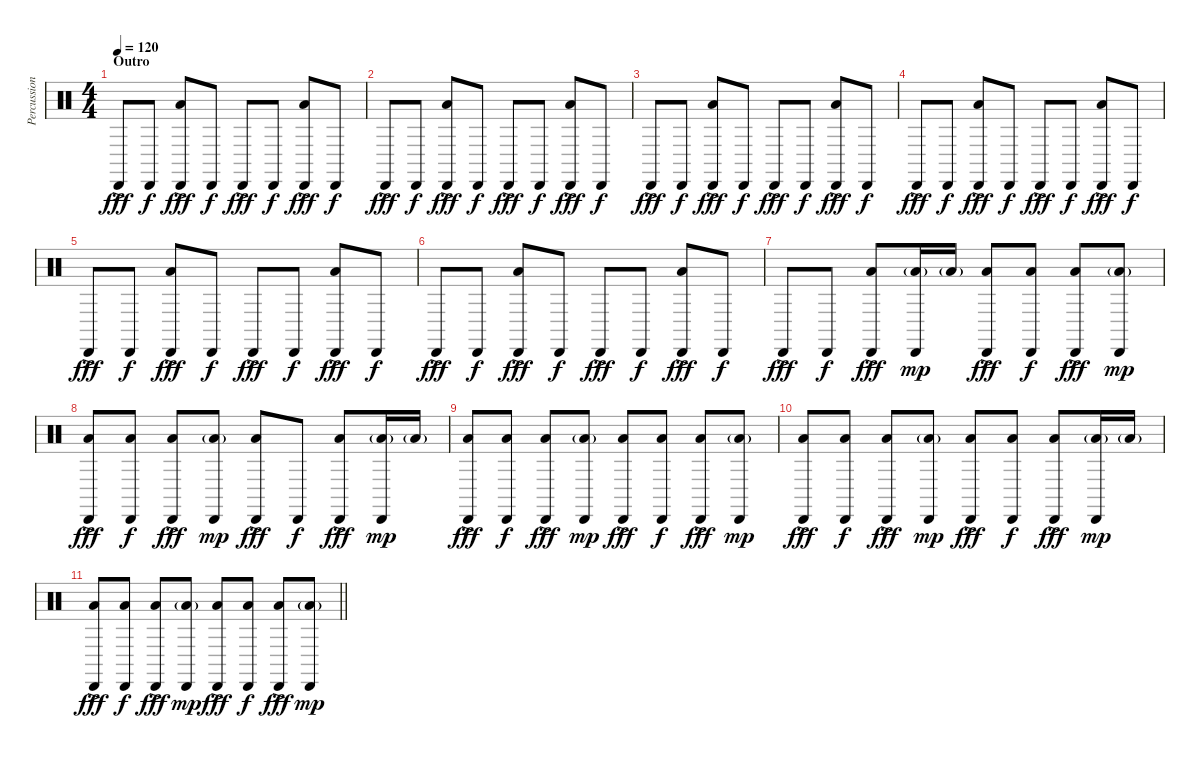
\track ("Percussion" "Percussion") {instrument percussion}
\staff {score}
\articulation defaults
\ts (4 4)
\section ("" "Outro")
\tempo 120
\clef neutral
\ks c "Cabasa (hit)"{ac}.8{dy fff} "Cabasa (hit)".8{dy f}
("Cabasa (hit)"{ac} "Low Tom (hit)").8{dy fff} "Cabasa (hit)".8{dy f} "Cabasa (hit)"{ac}.8{dy fff} "Cabasa (hit)".8{dy f} ("Cabasa (hit)"{ac} "Low Tom (hit)").8{dy fff} "Cabasa (hit)".8{dy f} |
"Cabasa (hit)"{ac}.8{dy fff} "Cabasa (hit)".8{dy f} ("Cabasa (hit)"{ac} "Low Tom (hit)").8{dy fff} "Cabasa (hit)".8{dy f} "Cabasa (hit)"{ac}.8{dy fff} "Cabasa (hit)".8{dy f} ("Cabasa (hit)"{ac} "Low Tom (hit)").8{dy fff} "Cabasa (hit)".8{dy f} |
"Cabasa (hit)"{ac}.8{dy fff} "Cabasa (hit)".8{dy f} ("Cabasa (hit)"{ac} "Low Tom (hit)").8{dy fff} "Cabasa (hit)".8{dy f} "Cabasa (hit)"{ac}.8{dy fff} "Cabasa (hit)".8{dy f} ("Cabasa (hit)"{ac} "Low Tom (hit)").8{dy fff} "Cabasa (hit)".8{dy f} |
"Cabasa (hit)"{ac}.8{dy fff} "Cabasa (hit)".8{dy f} ("Cabasa (hit)"{ac} "Low Tom (hit)").8{dy fff} "Cabasa (hit)".8{dy f} "Cabasa (hit)"{ac}.8{dy fff} "Cabasa (hit)".8{dy f} ("Cabasa (hit)"{ac} "Low Tom (hit)").8{dy fff} "Cabasa (hit)".8{dy f} |
"Cabasa (hit)"{ac}.8{dy fff} "Cabasa (hit)".8{dy f} ("Cabasa (hit)"{ac} "Low Tom (hit)").8{dy fff} "Cabasa (hit)".8{dy f} "Cabasa (hit)"{ac}.8{dy fff} "Cabasa (hit)".8{dy f} ("Cabasa (hit)"{ac} "Low Tom (hit)").8{dy fff} "Cabasa (hit)".8{dy f} |
"Cabasa (hit)"{ac}.8{dy fff} "Cabasa (hit)".8{dy f} ("Cabasa (hit)"{ac} "Low Tom (hit)").8{dy fff} "Cabasa (hit)".8{dy f} "Cabasa (hit)"{ac}.8{dy fff} "Cabasa (hit)".8{dy f} ("Cabasa (hit)"{ac} "Low Tom (hit)").8{dy fff} "Cabasa (hit)".8{dy f} |
"Cabasa (hit)"{ac}.8{dy fff} "Cabasa (hit)".8{dy f} ("Cabasa (hit)"{ac} "Low Tom (hit)").8{dy fff} ("Cabasa (hit)" "Low Tom (hit)"{g}).16{dy mp} "Low Tom (hit)"{g}.16 ("Cabasa (hit)"{ac} "Low Tom (hit)").8{dy fff} ("Cabasa (hit)" "Low Tom (hit)").8{dy f} ("Cabasa (hit)"{ac} "Low Tom (hit)").8{dy fff} ("Cabasa (hit)" "Low Tom (hit)"{g}).8{dy mp} |
("Cabasa (hit)"{ac} "Low Tom (hit)").8{dy fff} ("Cabasa (hit)" "Low Tom (hit)").8{dy f} ("Cabasa (hit)"{ac} "Low Tom (hit)").8{dy fff} ("Cabasa (hit)" "Low Tom (hit)"{g}).8{dy mp} ("Cabasa (hit)"{ac} "Low Tom (hit)").8{dy fff} "Cabasa (hit)".8{dy f} ("Cabasa (hit)"{ac} "Low Tom (hit)").8{dy fff} ("Cabasa (hit)" "Low Tom (hit)"{g}).16{dy mp} "Low Tom (hit)"{g}.16 |
("Cabasa (hit)"{ac} "Low Tom (hit)").8{dy fff} ("Cabasa (hit)" "Low Tom (hit)").8{dy f} ("Cabasa (hit)"{ac} "Low Tom (hit)").8{dy fff} ("Cabasa (hit)" "Low Tom (hit)"{g}).8{dy mp} ("Cabasa (hit)"{ac} "Low Tom (hit)").8{dy fff} ("Cabasa (hit)" "Low Tom (hit)").8{dy f} ("Cabasa (hit)"{ac} "Low Tom (hit)").8{dy fff} ("Cabasa (hit)" "Low Tom (hit)"{g}).8{dy mp} |
("Cabasa (hit)"{ac} "Low Tom (hit)").8{dy fff} ("Cabasa (hit)" "Low Tom (hit)").8{dy f} ("Cabasa (hit)"{ac} "Low Tom (hit)").8{dy fff} ("Cabasa (hit)" "Low Tom (hit)"{g}).8{dy mp} ("Cabasa (hit)"{ac} "Low Tom (hit)").8{dy fff} ("Cabasa (hit)" "Low Tom (hit)").8{dy f} ("Cabasa (hit)"{ac} "Low Tom (hit)").8{dy fff} ("Cabasa (hit)" "Low Tom (hit)"{g}).16{dy mp} "Low Tom (hit)"{g}.16 |
\barLineRight lightlight
("Cabasa (hit)"{ac} "Low Tom (hit)").8{dy fff} ("Cabasa (hit)" "Low Tom (hit)").8{dy f} ("Cabasa (hit)"{ac} "Low Tom (hit)").8{dy fff} ("Cabasa (hit)" "Low Tom (hit)"{g}).8{dy mp} ("Cabasa (hit)"{ac} "Low Tom (hit)").8{dy fff} ("Cabasa (hit)" "Low Tom (hit)").8{dy f} ("Cabasa (hit)"{ac} "Low Tom (hit)").8{dy fff} ("Cabasa (hit)" "Low Tom (hit)"{g}).8{dy mp}
